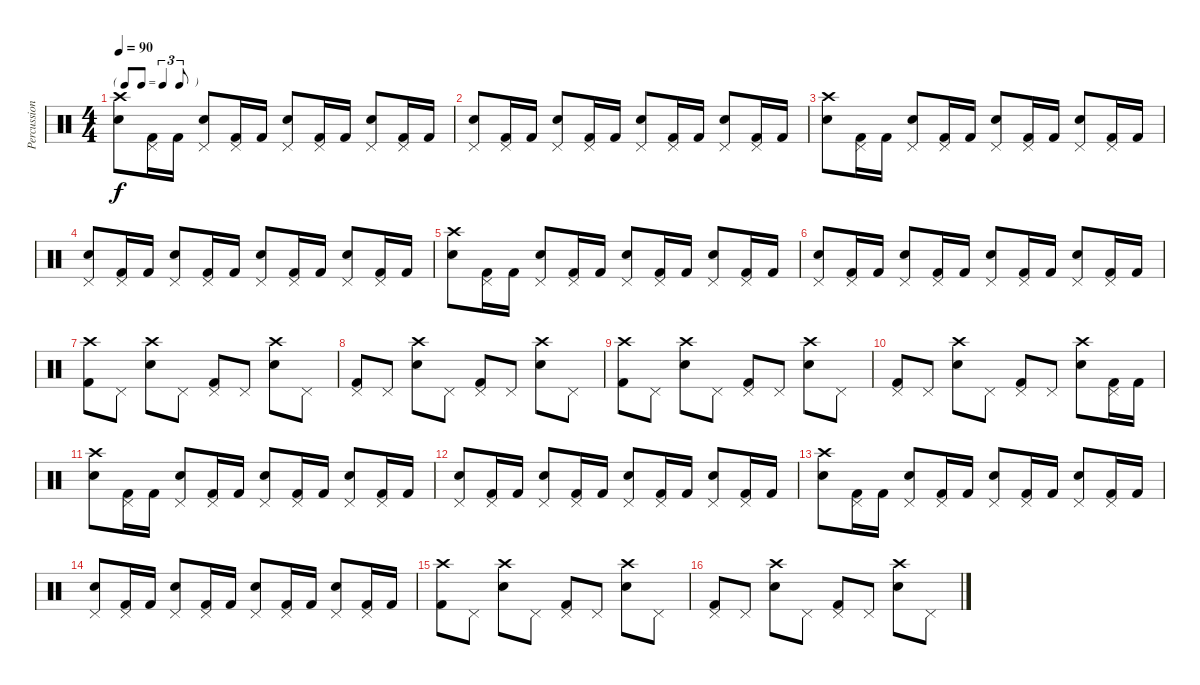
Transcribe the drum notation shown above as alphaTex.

\track ("Percussion" "Percussion") {instrument percussion}
\staff {score}
\articulation defaults
\ts (4 4)
\tf triplet8th
\tempo 90
\clef neutral
\ks c
("Crash high (hit)" "Snare (hit) 2").8{dy f} ("Pedal Hi-Hat (hit)" "Kick (hit) 2").16 "Kick (hit) 2".16 ("Pedal Hi-Hat (hit)" "Snare (hit) 2").8 ("Pedal Hi-Hat (hit)" "Kick (hit) 2").16 "Kick (hit) 2".16 ("Pedal Hi-Hat (hit)" "Snare (hit) 2").8 ("Pedal Hi-Hat (hit)" "Kick (hit) 2").16 "Kick (hit) 2".16 ("Pedal Hi-Hat (hit)" "Snare (hit) 2").8 ("Pedal Hi-Hat (hit)" "Kick (hit) 2").16 "Kick (hit) 2".16 |
("Pedal Hi-Hat (hit)" "Snare (hit) 2").8 ("Pedal Hi-Hat (hit)" "Kick (hit) 2").16 "Kick (hit) 2".16 ("Pedal Hi-Hat (hit)" "Snare (hit) 2").8 ("Pedal Hi-Hat (hit)" "Kick (hit) 2").16 "Kick (hit) 2".16 ("Pedal Hi-Hat (hit)" "Snare (hit) 2").8 ("Pedal Hi-Hat (hit)" "Kick (hit) 2").16 "Kick (hit) 2".16 ("Pedal Hi-Hat (hit)" "Snare (hit) 2").8 ("Pedal Hi-Hat (hit)" "Kick (hit) 2").16 "Kick (hit) 2".16 |
("Crash high (hit)" "Snare (hit) 2").8 ("Pedal Hi-Hat (hit)" "Kick (hit) 2").16 "Kick (hit) 2".16 ("Pedal Hi-Hat (hit)" "Snare (hit) 2").8 ("Pedal Hi-Hat (hit)" "Kick (hit) 2").16 "Kick (hit) 2".16 ("Pedal Hi-Hat (hit)" "Snare (hit) 2").8 ("Pedal Hi-Hat (hit)" "Kick (hit) 2").16 "Kick (hit) 2".16 ("Pedal Hi-Hat (hit)" "Snare (hit) 2").8 ("Pedal Hi-Hat (hit)" "Kick (hit) 2").16 "Kick (hit) 2".16 |
("Pedal Hi-Hat (hit)" "Snare (hit) 2").8 ("Pedal Hi-Hat (hit)" "Kick (hit) 2").16 "Kick (hit) 2".16 ("Pedal Hi-Hat (hit)" "Snare (hit) 2").8 ("Pedal Hi-Hat (hit)" "Kick (hit) 2").16 "Kick (hit) 2".16 ("Pedal Hi-Hat (hit)" "Snare (hit) 2").8 ("Pedal Hi-Hat (hit)" "Kick (hit) 2").16 "Kick (hit) 2".16 ("Pedal Hi-Hat (hit)" "Snare (hit) 2").8 ("Pedal Hi-Hat (hit)" "Kick (hit) 2").16 "Kick (hit) 2".16 |
("Crash high (hit)" "Snare (hit) 2").8 ("Pedal Hi-Hat (hit)" "Kick (hit) 2").16 "Kick (hit) 2".16 ("Pedal Hi-Hat (hit)" "Snare (hit) 2").8 ("Pedal Hi-Hat (hit)" "Kick (hit) 2").16 "Kick (hit) 2".16 ("Pedal Hi-Hat (hit)" "Snare (hit) 2").8 ("Pedal Hi-Hat (hit)" "Kick (hit) 2").16 "Kick (hit) 2".16 ("Pedal Hi-Hat (hit)" "Snare (hit) 2").8 ("Pedal Hi-Hat (hit)" "Kick (hit) 2").16 "Kick (hit) 2".16 |
("Pedal Hi-Hat (hit)" "Snare (hit) 2").8 ("Pedal Hi-Hat (hit)" "Kick (hit) 2").16 "Kick (hit) 2".16 ("Pedal Hi-Hat (hit)" "Snare (hit) 2").8 ("Pedal Hi-Hat (hit)" "Kick (hit) 2").16 "Kick (hit) 2".16 ("Pedal Hi-Hat (hit)" "Snare (hit) 2").8 ("Pedal Hi-Hat (hit)" "Kick (hit) 2").16 "Kick (hit) 2".16 ("Pedal Hi-Hat (hit)" "Snare (hit) 2").8 ("Pedal Hi-Hat (hit)" "Kick (hit) 2").16 "Kick (hit) 2".16 |
("Crash high (hit)" "Kick (hit) 2").8 "Pedal Hi-Hat (hit)".8 ("Crash high (hit)" "Snare (hit) 2").8 "Pedal Hi-Hat (hit)".8 ("Pedal Hi-Hat (hit)" "Kick (hit) 2").8 "Pedal Hi-Hat (hit)".8 ("Crash high (hit)" "Snare (hit) 2").8 "Pedal Hi-Hat (hit)".8 |
("Pedal Hi-Hat (hit)" "Kick (hit) 2").8 "Pedal Hi-Hat (hit)".8 ("Crash high (hit)" "Snare (hit) 2").8 "Pedal Hi-Hat (hit)".8 ("Pedal Hi-Hat (hit)" "Kick (hit) 2").8 "Pedal Hi-Hat (hit)".8 ("Crash high (hit)" "Snare (hit) 2").8 "Pedal Hi-Hat (hit)".8 |
("Crash high (hit)" "Kick (hit) 2").8 "Pedal Hi-Hat (hit)".8 ("Crash high (hit)" "Snare (hit) 2").8 "Pedal Hi-Hat (hit)".8 ("Pedal Hi-Hat (hit)" "Kick (hit) 2").8 "Pedal Hi-Hat (hit)".8 ("Crash high (hit)" "Snare (hit) 2").8 "Pedal Hi-Hat (hit)".8 |
("Pedal Hi-Hat (hit)" "Kick (hit) 2").8 "Pedal Hi-Hat (hit)".8 ("Crash high (hit)" "Snare (hit) 2").8 "Pedal Hi-Hat (hit)".8 ("Pedal Hi-Hat (hit)" "Kick (hit) 2").8 "Pedal Hi-Hat (hit)".8 ("Crash high (hit)" "Snare (hit) 2").8 ("Pedal Hi-Hat (hit)" "Kick (hit) 2").16 "Kick (hit) 2".16 |
("Crash high (hit)" "Snare (hit) 2").8 ("Pedal Hi-Hat (hit)" "Kick (hit) 2").16 "Kick (hit) 2".16 ("Pedal Hi-Hat (hit)" "Snare (hit) 2").8 ("Pedal Hi-Hat (hit)" "Kick (hit) 2").16 "Kick (hit) 2".16 ("Pedal Hi-Hat (hit)" "Snare (hit) 2").8 ("Pedal Hi-Hat (hit)" "Kick (hit) 2").16 "Kick (hit) 2".16 ("Pedal Hi-Hat (hit)" "Snare (hit) 2").8 ("Pedal Hi-Hat (hit)" "Kick (hit) 2").16 "Kick (hit) 2".16 |
("Pedal Hi-Hat (hit)" "Snare (hit) 2").8 ("Pedal Hi-Hat (hit)" "Kick (hit) 2").16 "Kick (hit) 2".16 ("Pedal Hi-Hat (hit)" "Snare (hit) 2").8 ("Pedal Hi-Hat (hit)" "Kick (hit) 2").16 "Kick (hit) 2".16 ("Pedal Hi-Hat (hit)" "Snare (hit) 2").8 ("Pedal Hi-Hat (hit)" "Kick (hit) 2").16 "Kick (hit) 2".16 ("Pedal Hi-Hat (hit)" "Snare (hit) 2").8 ("Pedal Hi-Hat (hit)" "Kick (hit) 2").16 "Kick (hit) 2".16 |
("Crash high (hit)" "Snare (hit) 2").8 ("Pedal Hi-Hat (hit)" "Kick (hit) 2").16 "Kick (hit) 2".16 ("Pedal Hi-Hat (hit)" "Snare (hit) 2").8 ("Pedal Hi-Hat (hit)" "Kick (hit) 2").16 "Kick (hit) 2".16 ("Pedal Hi-Hat (hit)" "Snare (hit) 2").8 ("Pedal Hi-Hat (hit)" "Kick (hit) 2").16 "Kick (hit) 2".16 ("Pedal Hi-Hat (hit)" "Snare (hit) 2").8 ("Pedal Hi-Hat (hit)" "Kick (hit) 2").16 "Kick (hit) 2".16 |
("Pedal Hi-Hat (hit)" "Snare (hit) 2").8 ("Pedal Hi-Hat (hit)" "Kick (hit) 2").16 "Kick (hit) 2".16 ("Pedal Hi-Hat (hit)" "Snare (hit) 2").8 ("Pedal Hi-Hat (hit)" "Kick (hit) 2").16 "Kick (hit) 2".16 ("Pedal Hi-Hat (hit)" "Snare (hit) 2").8 ("Pedal Hi-Hat (hit)" "Kick (hit) 2").16 "Kick (hit) 2".16 ("Pedal Hi-Hat (hit)" "Snare (hit) 2").8 ("Pedal Hi-Hat (hit)" "Kick (hit) 2").16 "Kick (hit) 2".16 |
("Crash high (hit)" "Kick (hit) 2").8 "Pedal Hi-Hat (hit)".8 ("Crash high (hit)" "Snare (hit) 2").8 "Pedal Hi-Hat (hit)".8 ("Pedal Hi-Hat (hit)" "Kick (hit) 2").8 "Pedal Hi-Hat (hit)".8 ("Crash high (hit)" "Snare (hit) 2").8 "Pedal Hi-Hat (hit)".8 |
("Pedal Hi-Hat (hit)" "Kick (hit) 2").8 "Pedal Hi-Hat (hit)".8 ("Crash high (hit)" "Snare (hit) 2").8 "Pedal Hi-Hat (hit)".8 ("Pedal Hi-Hat (hit)" "Kick (hit) 2").8 "Pedal Hi-Hat (hit)".8 ("Crash high (hit)" "Snare (hit) 2").8 "Pedal Hi-Hat (hit)".8
